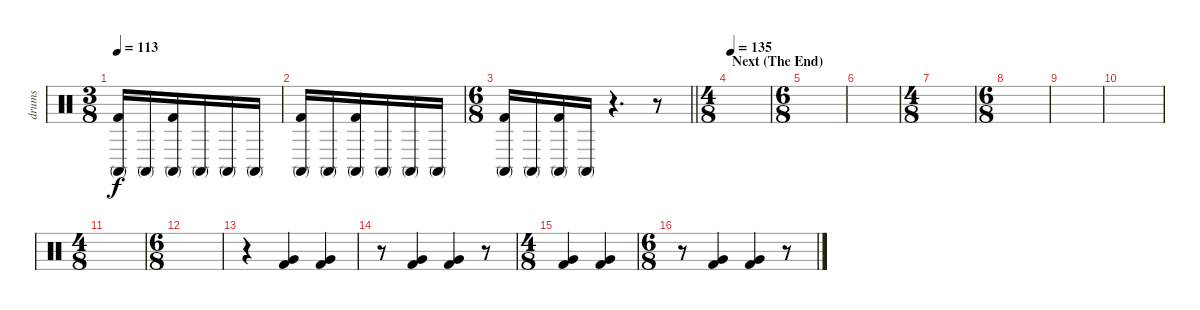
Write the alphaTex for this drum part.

\track ("drums" "drums") {instrument percussion}
\staff {score}
\articulation defaults
\ts (3 8)
\tempo 113
\clef neutral
\ks c
("Conga high (mute)" "Kick (hit) 2").16{dy f} "Conga high (mute)".16 ("Conga high (mute)" "Kick (hit) 2").16 "Conga high (mute)".16 "Conga high (mute)".16 "Conga high (mute)".16 |
("Conga high (mute)" "Kick (hit) 2").16 "Conga high (mute)".16 ("Conga high (mute)" "Kick (hit) 2").16 "Conga high (mute)".16 "Conga high (mute)".16 "Conga high (mute)".16 |
\ts (6 8)
\barLineRight lightlight
("Conga high (mute)" "Kick (hit) 2").16 "Conga high (mute)".16 ("Conga high (mute)" "Kick (hit) 2").16 "Conga high (mute)".16 r.4{d} r.8 |
\ts (4 8)
\section ("" "Next (The End)")
\tempo 135
|
\ts (6 8)
|
|
\ts (4 8)
|
\ts (6 8)
|
|
|
\ts (4 8)
|
\ts (6 8)
|
r.4 ("Kick (hit) 2" "Very Low Tom (hit)").4 ("Kick (hit) 2" "Very Low Tom (hit)").4 |
r.8 ("Kick (hit) 2" "Very Low Tom (hit)").4 ("Kick (hit) 2" "Very Low Tom (hit)").4 r.8 |
\ts (4 8)
("Kick (hit) 2" "Very Low Tom (hit)").4 ("Kick (hit) 2" "Very Low Tom (hit)").4 |
\ts (6 8)
r.8 ("Kick (hit) 2" "Very Low Tom (hit)").4 ("Kick (hit) 2" "Very Low Tom (hit)").4 r.8
